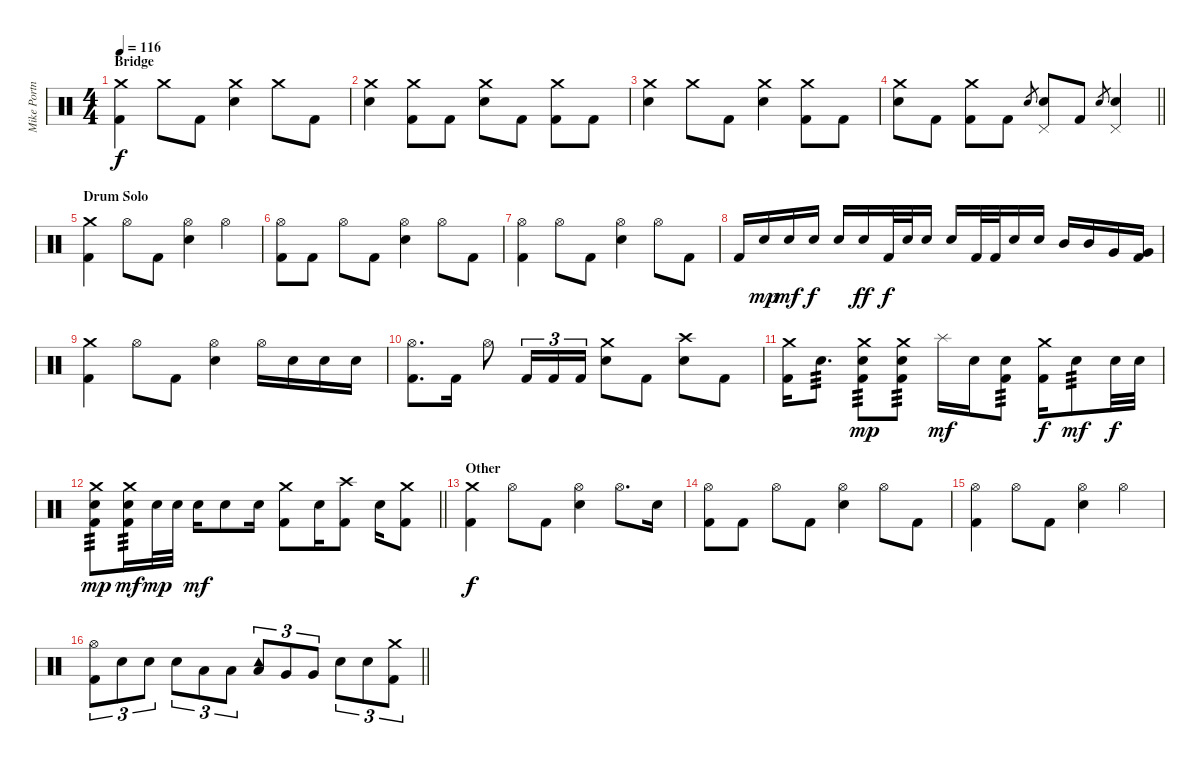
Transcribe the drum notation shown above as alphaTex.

\track ("Mike Portnoy [Drums]" "Mike Portn") {instrument percussion}
\staff {score}
\articulation defaults
\ts (4 4)
\section ("" "Bridge")
\tempo 116
\clef neutral
\ks c
("Crash medium (hit)" "Kick (hit) 2").4{dy f} "Crash medium (hit)".8 "Kick (hit) 2".8 ("Crash medium (hit)" "Electric Snare (hit)").4 "Crash medium (hit)".8 "Kick (hit) 2".8 |
("Crash medium (hit)" "Electric Snare (hit)").4 ("Crash medium (hit)" "Kick (hit) 2").8 "Kick (hit) 2".8 ("Crash medium (hit)" "Electric Snare (hit)").8 "Kick (hit) 2".8 ("Crash medium (hit)" "Kick (hit) 2").8 "Kick (hit) 2".8 |
("Crash medium (hit)" "Electric Snare (hit)").4 "Crash medium (hit)".8 "Kick (hit) 2".8 ("Crash medium (hit)" "Electric Snare (hit)").4 ("Crash medium (hit)" "Kick (hit) 2").8 "Kick (hit) 2".8 |
\barLineRight lightlight
("Crash medium (hit)" "Electric Snare (hit)").8 "Kick (hit) 2".8 ("Crash medium (hit)" "Kick (hit) 2").8 "Kick (hit) 2".8 "Electric Snare (hit)".8{gr} ("Pedal Hi-Hat (hit)" "Electric Snare (hit)").8 "Kick (hit) 2".8 "Electric Snare (hit)".8{gr} ("Pedal Hi-Hat (hit)" "Electric Snare (hit)").4 |
\section ("" "Drum Solo")
("Crash medium (hit)" "Kick (hit) 2").4 "Hi-Hat (open)".8 "Kick (hit) 2".8 ("Hi-Hat (open)" "Electric Snare (hit)").4 "Hi-Hat (open)".4 |
("Hi-Hat (open)" "Kick (hit) 2").8 "Kick (hit) 2".8 "Hi-Hat (open)".8 "Kick (hit) 2".8 ("Hi-Hat (open)" "Electric Snare (hit)").4 "Hi-Hat (open)".8 "Kick (hit) 2".8 |
("Hi-Hat (open)" "Kick (hit) 2").4 "Hi-Hat (open)".8 "Kick (hit) 2".8 ("Hi-Hat (open)" "Electric Snare (hit)").4 "Hi-Hat (open)".8 "Kick (hit) 2".8 |
"Kick (hit) 2".16{volume 12} "Electric Snare (hit)".16{dy mp volume 16} "Electric Snare (hit)".16{dy mf} "Electric Snare (hit)".16{dy f} "Electric Snare (hit)".16 "Electric Snare (hit)".16{dy ff} "Kick (hit) 2".32{dy f} "Electric Snare (hit)".32 "Electric Snare (hit)".16 "Electric Snare (hit)".16 "Kick (hit) 2".32 "Kick (hit) 2".32 "Electric Snare (hit)".16 "Electric Snare (hit)".16 "Mid Tom (hit)".16 "Mid Tom (hit)".16 "Very Low Tom (hit)".16 ("Very Low Tom (hit)" "Kick (hit) 2").16 |
("Crash medium (hit)" "Kick (hit) 2").4 "Hi-Hat (open)".8 "Kick (hit) 2".8 ("Hi-Hat (open)" "Electric Snare (hit)").4 "Hi-Hat (open)".16 "Electric Snare (hit)".16 "Electric Snare (hit)".16 "Electric Snare (hit)".16 |
("Hi-Hat (open)" "Kick (hit) 2").8{d} "Kick (hit) 2".16 "Hi-Hat (open)".8 "Kick (hit) 2".16{tu (3 2)} "Kick (hit) 2".16{tu (3 2)} "Kick (hit) 2".16{tu (3 2)} ("Crash medium (hit)" "Electric Snare (hit)").8 "Kick (hit) 2".8 ("Crash high (hit)" "Electric Snare (hit)").8 "Kick (hit) 2".8 |
("Crash medium (hit)" "Kick (hit) 2").16{volume 14} "Electric Snare (hit)".8{d tp 3 volume 16} ("Crash medium (hit)" "Electric Snare (hit)" "Kick (hit) 2").8{tp 3 dy mp} ("Crash medium (hit)" "Electric Snare (hit)" "Kick (hit) 2").8{tp 3} "Splash (hit)".16{dy mf} "Electric Snare (hit)".16 ("Electric Snare (hit)" "Kick (hit) 2").8{tp 3} ("Crash medium (hit)" "Kick (hit) 2").16{dy f} "Electric Snare (hit)".8{tp 3 dy mf} "Electric Snare (hit)".32{dy f} "Electric Snare (hit)".32 |
\barLineRight lightlight
("Crash medium (hit)" "Electric Snare (hit)" "Kick (hit) 2").8{tp 3 dy mp} ("Crash medium (hit)" "Electric Snare (hit)" "Kick (hit) 2").16{tp 3 dy mf} "Electric Snare (hit)".32{dy mp} "Electric Snare (hit)".32 "Electric Snare (hit)".16{dy mf} "Electric Snare (hit)".8 "Electric Snare (hit)".16 ("Crash medium (hit)" "Kick (hit) 2").8 "Electric Snare (hit)".16 ("Crash high (hit)" "Kick (hit) 2").8 "Electric Snare (hit)".16 ("Crash medium (hit)" "Kick (hit) 2").8 |
\section ("" "Other")
("Crash medium (hit)" "Kick (hit) 2").4{dy f} "Hi-Hat (open)".8 "Kick (hit) 2".8 ("Hi-Hat (open)" "Electric Snare (hit)").4 "Hi-Hat (open)".8{d} "Electric Snare (hit)".16 |
("Hi-Hat (open)" "Kick (hit) 2").8 "Kick (hit) 2".8 "Hi-Hat (open)".8 "Kick (hit) 2".8 ("Hi-Hat (open)" "Electric Snare (hit)").4 "Hi-Hat (open)".8 "Kick (hit) 2".8 |
("Hi-Hat (open)" "Kick (hit) 2").4 "Hi-Hat (open)".8 "Kick (hit) 2".8 ("Hi-Hat (open)" "Electric Snare (hit)").4 "Hi-Hat (open)".4 |
\barLineRight lightlight
("Hi-Hat (open)" "Kick (hit) 2").8{tu (3 2)} "Electric Snare (hit)".8{tu (3 2)} "Electric Snare (hit)".8{tu (3 2)} "Electric Snare (hit)".8{tu (3 2)} "Low Tom (hit)".8{tu (3 2)} "Low Tom (hit)".8{tu (3 2)} ("Tambourine (hit)" "Low Tom (hit)").8{tu (3 2)} "Very Low Tom (hit)".8{tu (3 2)} "Very Low Tom (hit)".8{tu (3 2)} "Electric Snare (hit)".8{tu (3 2)} "Electric Snare (hit)".8{tu (3 2)} ("Crash medium (hit)" "Kick (hit) 2").8{tu (3 2)}
